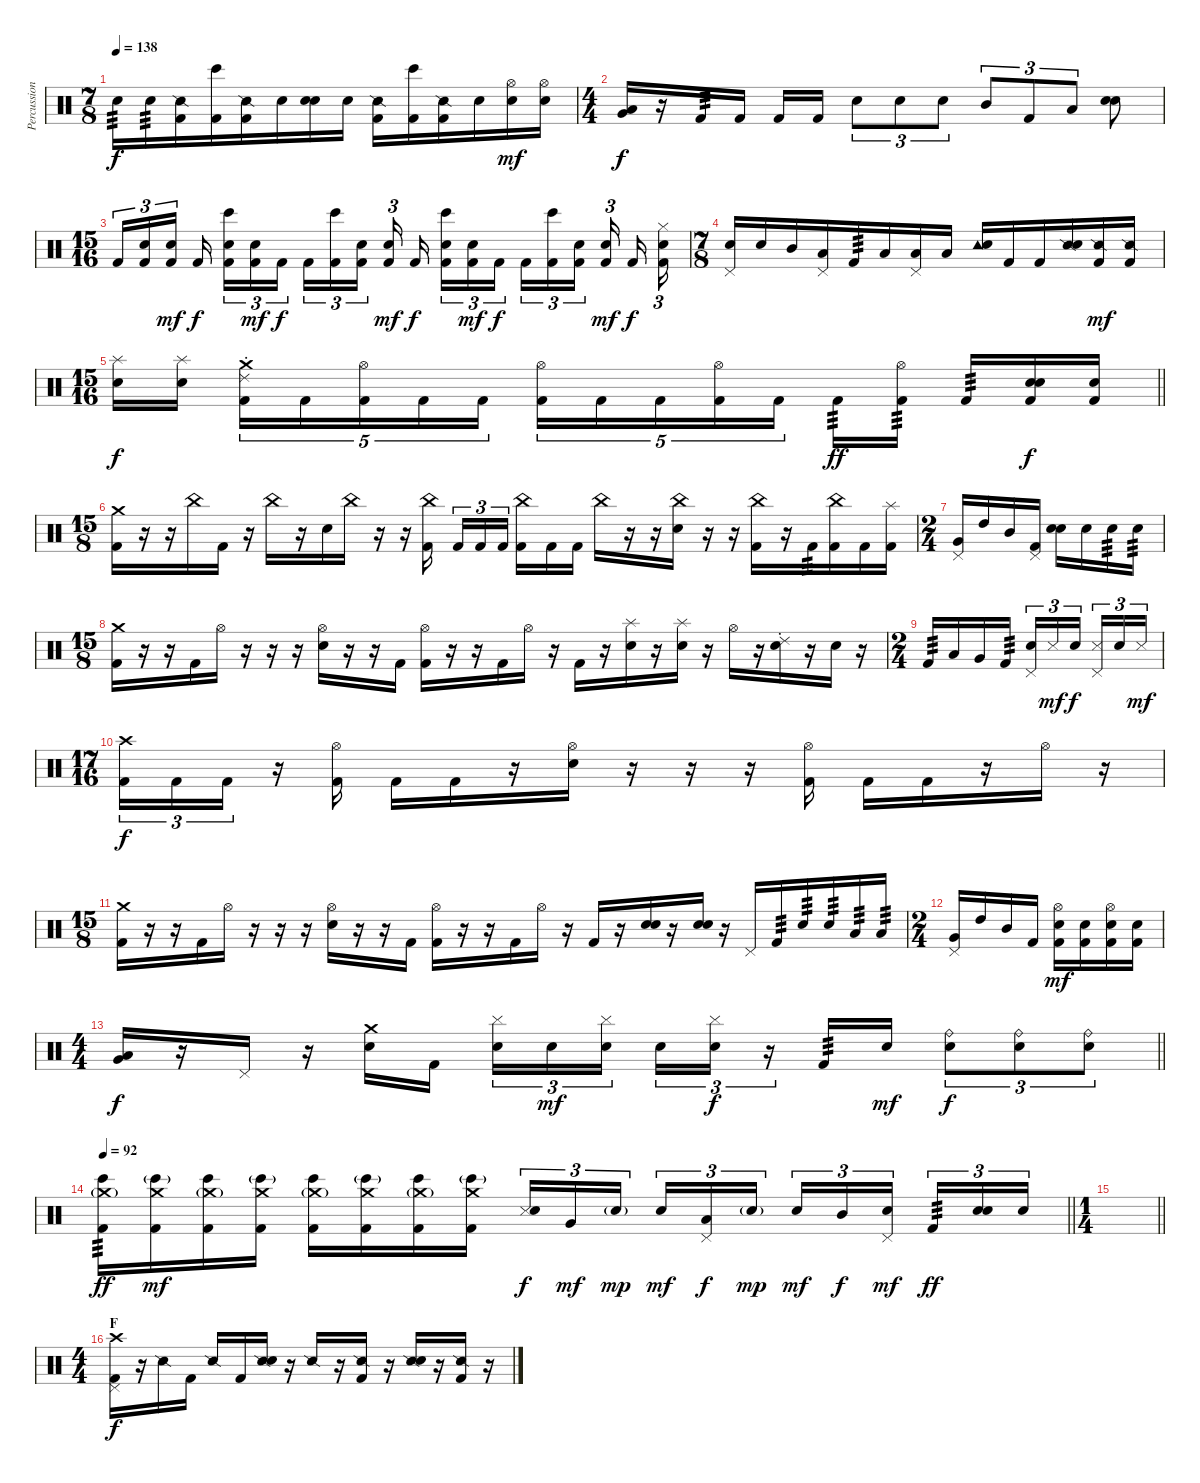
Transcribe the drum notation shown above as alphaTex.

\track ("Percussion" "Percussion") {instrument percussion}
\staff {score}
\articulation defaults
\ts (7 8)
\tempo 138
\clef neutral
\ks c "Snare (hit) 2".16{tp 3 dy f} "Snare (hit) 2".16{tp 3}
("Snare (side stick) 2" "Kick (hit) 2").16 ("Bongo High (hit)" "Kick (hit) 2").16 ("Snare (side stick) 2" "Kick (hit) 2").16 "Snare (hit) 2".16 ("Snare (hit)" "Snare (hit) 2").16 "Snare (hit) 2".16 ("Snare (side stick) 2" "Kick (hit) 2").16 ("Bongo High (hit)" "Kick (hit) 2").16 ("Snare (side stick) 2" "Kick (hit) 2").16 "Snare (hit) 2".16 ("Hi-Hat (open)" "Snare (hit) 2").16{dy mf} ("Hi-Hat (open)" "Snare (hit) 2").16 |
\ts (4 4)
("Low Tom (hit)" "Very Low Tom (hit)").16{bu 60 dy f} r.16 "Kick (hit) 2".16{tp 3} "Kick (hit) 2".16 "Kick (hit) 2".16 "Kick (hit) 2".16 "Snare (hit) 2".8{tu (3 2)} "Snare (hit) 2".8{tu (3 2)} "Snare (hit) 2".8{tu (3 2)} "Mid Tom (hit)".8{tu (3 2)} "Kick (hit) 2".8{tu (3 2)} "Low Tom (hit)".8{tu (3 2)} ("Snare (hit)" "Snare (hit) 2").8 |
\ts (15 16)
"Kick (hit) 2".16{tu (3 2)} ("Snare (hit) 2" "Kick (hit) 2").16{tu (3 2)} ("Snare (hit) 2" "Kick (hit) 2").16{tu (3 2) dy mf beam splitsecondary} "Kick (hit) 2".16{dy f} ("Bongo High (hit)" "Snare (hit) 2" "Kick (hit) 2").16{tu (3 2)} ("Snare (hit) 2" "Kick (hit) 2").16{tu (3 2) dy mf} "Kick (hit) 2".16{tu (3 2) dy f beam splitsecondary} "Kick (hit) 2".16{tu (3 2)} ("Bongo High (hit)" "Kick (hit) 2").16{tu (3 2)} ("Snare (hit) 2" "Kick (hit) 2").16{tu (3 2) beam splitsecondary} ("Snare (hit) 2" "Kick (hit) 2").16{tu (3 2) dy mf beam splitsecondary} "Kick (hit) 2".16{dy f} ("Bongo High (hit)" "Snare (hit) 2" "Kick (hit) 2").16{tu (3 2)} ("Snare (hit) 2" "Kick (hit) 2").16{tu (3 2) dy mf} "Kick (hit) 2".16{tu (3 2) dy f beam splitsecondary} "Kick (hit) 2".16{tu (3 2)} ("Bongo High (hit)" "Kick (hit) 2").16{tu (3 2)} ("Snare (hit) 2" "Kick (hit) 2").16{tu (3 2) beam splitsecondary} ("Snare (hit) 2" "Kick (hit) 2").16{tu (3 2) dy mf beam splitsecondary} "Kick (hit) 2".16{dy f} ("Hi-Hat (closed)" "Snare (hit) 2" "Kick (hit) 2").16{tu (3 2)} |
\ts (7 8)
("Pedal Hi-Hat (hit)" "Snare (hit) 2").16 "Snare (hit) 2".16 "Mid Tom (hit)".16 ("Pedal Hi-Hat (hit)" "Low Tom (hit)").16 "Kick (hit) 2".16{tp 3} "Low Tom (hit)".16 ("Pedal Hi-Hat (hit)" "Low Tom (hit)").16 "Low Tom (hit)".16 ("Tambourine (hit)" "Snare (hit) 2").16 "Kick (hit) 2".16 "Kick (hit) 2".16 ("Snare (side stick) 2" "Snare (hit) 2").16 ("Snare (side stick) 2" "Kick (hit) 2").16{dy mf} ("Snare (side stick) 2" "Kick (hit) 2").16 |
\ts (15 16)
\barLineRight lightlight
("Splash (hit)" "Snare (hit) 2").16{dy f} ("Splash (hit)" "Snare (hit) 2").16{beam splitsecondary} ("Crash medium (hit)" "Ride (choke) 2" "Kick (hit) 2").16{tu (5 4)} "Kick (hit) 2".16{tu (5 4)} ("Hi-Hat (open)" "Kick (hit) 2").16{tu (5 4)} "Kick (hit) 2".16{tu (5 4)} "Kick (hit) 2".16{tu (5 4)} ("Hi-Hat (open)" "Kick (hit) 2").16{tu (5 4)} "Kick (hit) 2".16{tu (5 4)} "Kick (hit) 2".16{tu (5 4)} ("Hi-Hat (open)" "Kick (hit) 2").16{tu (5 4)} "Kick (hit) 2".16{tu (5 4) beam splitsecondary} "Kick (hit) 2".16{tp 3 dy ff} ("Hi-Hat (open)" "Kick (hit) 2").16{tp 3} "Kick (hit) 2".16{tp 3} ("Snare (hit)" "Snare (hit) 2" "Kick (hit) 2").16{dy f} ("Snare (hit) 2" "Kick (hit) 2").16 |
\ts (15 8)
("Crash medium (hit)" "Kick (hit) 2").16 r.16 r.16 "China (hit)".16 "Kick (hit) 2".16 r.16 "China (hit)".16 r.16 "Snare (hit) 2".16 "China (hit)".16 r.16 r.16 ("China (hit)" "Kick (hit) 2").16{beam splitsecondary} "Kick (hit) 2".16{tu (3 2)} "Kick (hit) 2".16{tu (3 2)} "Kick (hit) 2".16{tu (3 2) beam splitsecondary} ("China (hit)" "Kick (hit) 2").16 "Kick (hit) 2".16 "Kick (hit) 2".16 "China (hit)".16 r.16 r.16 ("China (hit)" "Snare (hit) 2").16 r.16 r.16 ("China (hit)" "Kick (hit) 2").16 r.16 "Kick (hit) 2".16{tp 3} ("China (hit)" "Kick (hit) 2").16 "Kick (hit) 2".16 ("Splash (hit)" "Kick (hit) 2").16 |
\ts (2 4)
("Pedal Hi-Hat (hit)" "Very Low Tom (hit)").16 "High Tom (hit)".16 "Mid Tom (hit)".16 ("Pedal Hi-Hat (hit)" "Kick (hit) 2").16 ("Snare (hit)" "Snare (hit) 2").16 "Snare (hit) 2".16 "Snare (hit) 2".16{tp 3} "Snare (hit) 2".16{tp 3} |
\ts (15 8)
("Crash medium (hit)" "Kick (hit) 2").16 r.16 r.16 "Kick (hit) 2".16 "Hi-Hat (open)".16 r.16 r.16 r.16 ("Hi-Hat (open)" "Snare (hit) 2").16 r.16 r.16 "Kick (hit) 2".16 ("Hi-Hat (open)" "Kick (hit) 2").16 r.16 r.16 "Kick (hit) 2".16 "Hi-Hat (open)".16 r.16 "Kick (hit) 2".16 r.16 ("Splash (hit)" "Snare (hit) 2").16 r.16 ("Splash (hit)" "Snare (hit) 2").16 r.16 "Hi-Hat (open)".16 r.16 ("Ride (choke) 2" "Snare (hit) 2").16 r.16 "Snare (hit)".16 r.16 |
\ts (2 4)
"Kick (hit) 2".16{tp 3} "Low Tom (hit)".16 "Very Low Tom (hit)".16 "Kick (hit) 2".16{tp 3} ("Pedal Hi-Hat (hit)" "Snare (hit) 2").16{tu (3 2)} "Metronome (hit)".16{tu (3 2) dy mf} "Snare (hit) 2".16{tu (3 2) dy f beam splitsecondary} ("Pedal Hi-Hat (hit)" "Metronome (hit)").16{tu (3 2)} "Snare (hit) 2".16{tu (3 2)} "Metronome (hit)".16{tu (3 2) dy mf} |
\ts (17 16)
("Crash high (hit)" "Kick (hit) 2").16{tu (3 2) dy f} "Kick (hit) 2".16{tu (3 2)} "Kick (hit) 2".16{tu (3 2)} r.16 ("Hi-Hat (open)" "Kick (hit) 2").16 "Kick (hit) 2".16 "Kick (hit) 2".16 r.16 ("Hi-Hat (open)" "Snare (hit) 2").16 r.16 r.16 r.16 ("Hi-Hat (open)" "Kick (hit) 2").16 "Kick (hit) 2".16 "Kick (hit) 2".16 r.16 "Hi-Hat (open)".16 r.16 |
\ts (15 8)
("Crash medium (hit)" "Kick (hit) 2").16 r.16 r.16 "Kick (hit) 2".16 "Hi-Hat (open)".16 r.16 r.16 r.16 ("Hi-Hat (open)" "Snare (hit) 2").16 r.16 r.16 "Kick (hit) 2".16 ("Hi-Hat (open)" "Kick (hit) 2").16 r.16 r.16 "Kick (hit) 2".16 "Hi-Hat (open)".16 r.16 "Kick (hit) 2".16 r.16 ("Snare (hit)" "Snare (hit) 2").16 r.16 ("Snare (hit)" "Snare (hit) 2").16 r.16 "Pedal Hi-Hat (hit)".16 "Kick (hit) 2".16{tp 3} "Snare (hit) 2".16{tp 3} "Snare (hit) 2".16{tp 3} "Low Tom (hit)".16{tp 3} "Low Tom (hit)".16{tp 3} |
\ts (2 4)
("Pedal Hi-Hat (hit)" "Very Low Tom (hit)").16 "High Tom (hit)".16 "Mid Tom (hit)".16 "Kick (hit) 2".16 ("Hi-Hat (open)" "Snare (hit) 2" "Kick (hit) 2").16{dy mf} ("Snare (hit) 2" "Kick (hit) 2").16 ("Hi-Hat (open)" "Snare (hit) 2" "Kick (hit) 2").16 ("Snare (hit) 2" "Kick (hit) 2").16 |
\ts (4 4)
\barLineRight lightlight
("Low Tom (hit)" "Very Low Tom (hit)").16{bu 60 dy f} r.16 "Pedal Hi-Hat (hit)".16 r.16 ("Crash medium (hit)" "Snare (hit) 2").16 "Kick (hit) 2".16{beam splitsecondary} ("Cymbal (hit)" "Snare (hit) 2").16{tu (3 2)} "Snare (hit) 2".16{tu (3 2) dy mf} ("Cymbal (hit)" "Snare (hit) 2").16{tu (3 2)} "Snare (hit) 2".16{tu (3 2)} ("Cymbal (hit)" "Snare (hit) 2").16{tu (3 2) dy f} r.16{tu (3 2)} "Kick (hit) 2".16{tp 3} "Snare (hit) 2".16{dy mf} ("Ride (bell)" "Snare (hit) 2").8{tu (3 2) dy f} ("Ride (bell)" "Snare (hit) 2").8{tu (3 2)} ("Ride (bell)" "Snare (hit) 2").8{tu (3 2)} |
\tempo 92
\barLineRight lightlight
("Crash medium (hit)"{g} "Bongo High (hit)" "Kick (hit) 2").16{tp 3 dy ff} ("Crash medium (hit)" "Bongo High (hit)"{g} "Kick (hit) 2").16{dy mf} ("Crash medium (hit)"{g} "Bongo High (hit)" "Kick (hit) 2").16 ("Crash medium (hit)" "Bongo High (hit)"{g} "Kick (hit) 2").16 ("Crash medium (hit)"{g} "Bongo High (hit)" "Kick (hit) 2").16 ("Crash medium (hit)" "Bongo High (hit)"{g} "Kick (hit) 2").16 ("Crash medium (hit)"{g} "Bongo High (hit)" "Kick (hit) 2").16 ("Crash medium (hit)" "Bongo High (hit)"{g} "Kick (hit) 2").16 ("Metronome (hit)" "Snare (hit) 2").16{tu (3 2) bu 60 dy f} "Very Low Tom (hit)".16{tu (3 2) dy mf} "Snare (hit) 2"{g}.16{tu (3 2) dy mp beam splitsecondary} "Snare (hit) 2".16{tu (3 2) dy mf} ("Pedal Hi-Hat (hit)" "Low Tom (hit)").16{tu (3 2) dy f} "Snare (hit) 2"{g}.16{tu (3 2) dy mp} "Snare (hit) 2".16{tu (3 2) dy mf} "Mid Tom (hit)".16{tu (3 2) dy f} ("Pedal Hi-Hat (hit)" "Snare (hit) 2").16{tu (3 2) dy mf beam splitsecondary} "Kick (hit) 2".16{tu (3 2) tp 3 dy ff} ("Snare (hit)" "Snare (hit) 2").16{tu (3 2)} "Snare (hit) 2".16{tu (3 2)} |
\ts (1 4)
\barLineRight lightlight
|
\ts (4 4)
\section ("" "F")
("Crash high (hit)" "Pedal Hi-Hat (hit)" "Kick (hit) 2").16{dy f} r.16 "Snare (side stick) 2".16 "Kick (hit) 2".16 "Snare (side stick) 2".16 "Kick (hit) 2".16 ("Snare (side stick) 2" "Snare (hit) 2").16 r.16 "Snare (side stick) 2".16 r.16 ("Snare (side stick) 2" "Kick (hit) 2").16 r.16 ("Snare (side stick) 2" "Snare (hit) 2").16 r.16 ("Snare (side stick) 2" "Kick (hit) 2").16 r.16
